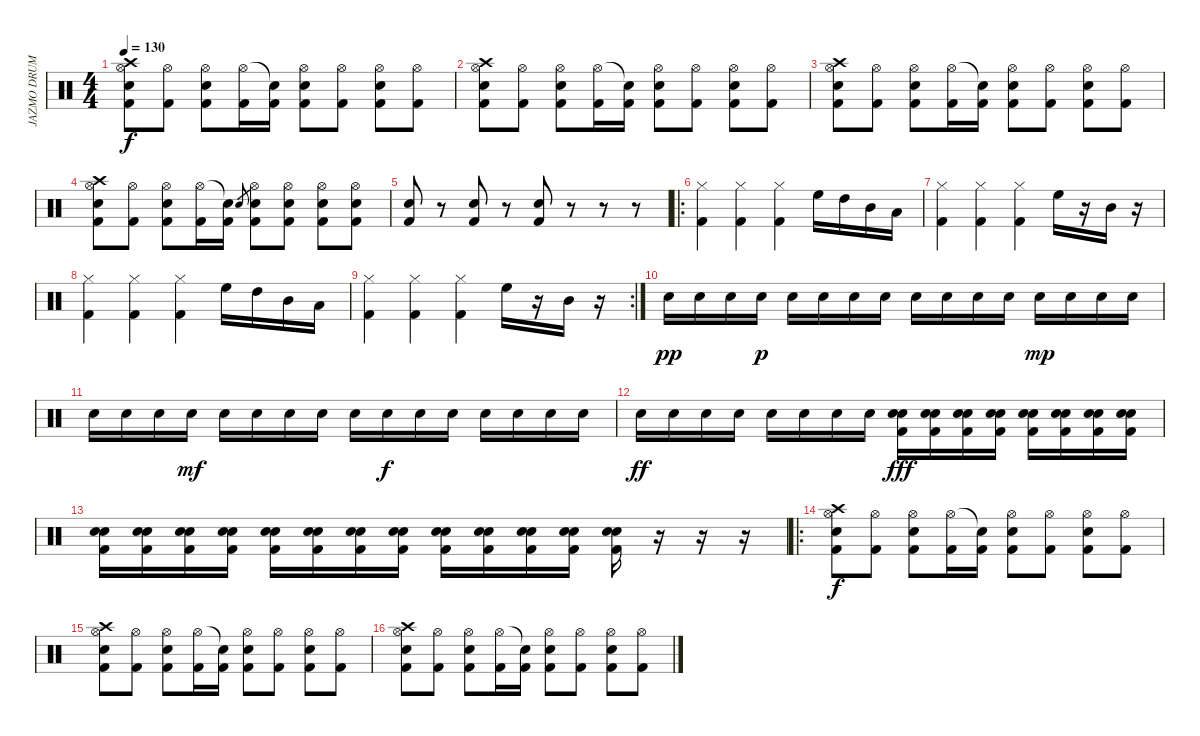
\track ("JAZMO DRUMS" "JAZMO DRUM") {instrument percussion}
\staff {score}
\articulation defaults
\ts (4 4)
\tempo 130
\clef neutral
\ks c
("Crash high (hit)" "Hi-Hat (open)" "Snare (hit) 2" "Kick (hit) 2").8{dy f} ("Hi-Hat (open)" "Kick (hit) 2").8 ("Hi-Hat (open)" "Snare (hit) 2" "Kick (hit) 2").8 ("Hi-Hat (open)" "Kick (hit) 2").16 ("Snare (hit)"{t} "Kick (hit) 2").16 ("Hi-Hat (open)" "Snare (hit) 2" "Kick (hit) 2").8 ("Hi-Hat (open)" "Kick (hit) 2").8 ("Hi-Hat (open)" "Snare (hit) 2" "Kick (hit) 2").8 ("Hi-Hat (open)" "Kick (hit) 2").8 |
("Crash high (hit)" "Hi-Hat (open)" "Snare (hit) 2" "Kick (hit) 2").8 ("Hi-Hat (open)" "Kick (hit) 2").8 ("Hi-Hat (open)" "Snare (hit) 2" "Kick (hit) 2").8 ("Hi-Hat (open)" "Kick (hit) 2").16 ("Snare (hit)"{t} "Kick (hit) 2").16 ("Hi-Hat (open)" "Snare (hit) 2" "Kick (hit) 2").8 ("Hi-Hat (open)" "Kick (hit) 2").8 ("Hi-Hat (open)" "Snare (hit) 2" "Kick (hit) 2").8 ("Hi-Hat (open)" "Kick (hit) 2").8 |
("Crash high (hit)" "Hi-Hat (open)" "Snare (hit) 2" "Kick (hit) 2").8 ("Hi-Hat (open)" "Kick (hit) 2").8 ("Hi-Hat (open)" "Snare (hit) 2" "Kick (hit) 2").8 ("Hi-Hat (open)" "Kick (hit) 2").16 ("Snare (hit)"{t} "Kick (hit) 2").16 ("Hi-Hat (open)" "Snare (hit) 2" "Kick (hit) 2").8 ("Hi-Hat (open)" "Kick (hit) 2").8 ("Hi-Hat (open)" "Snare (hit) 2" "Kick (hit) 2").8 ("Hi-Hat (open)" "Kick (hit) 2").8 |
("Crash high (hit)" "Hi-Hat (open)" "Snare (hit) 2" "Kick (hit) 2").8 ("Hi-Hat (open)" "Kick (hit) 2").8 ("Hi-Hat (open)" "Snare (hit) 2" "Kick (hit) 2").8 ("Hi-Hat (open)" "Kick (hit) 2").16 ("Snare (hit)"{t} "Kick (hit) 2").16 "Electric Snare (hit)".8{gr} ("Hi-Hat (open)" "Electric Snare (hit)" "Kick (hit) 2").8 ("Hi-Hat (open)" "Electric Snare (hit)" "Kick (hit) 2").8 ("Hi-Hat (open)" "Electric Snare (hit)" "Kick (hit) 2").8 ("Hi-Hat (open)" "Electric Snare (hit)" "Kick (hit) 2").8 |
("Electric Snare (hit)" "Kick (hit) 2").8 r.8 ("Electric Snare (hit)" "Kick (hit) 2").8 r.8 ("Electric Snare (hit)" "Kick (hit) 2").8 r.8 r.8 r.8 |
\ro
("Hi-Hat (closed)" "Kick (hit) 2").4 ("Hi-Hat (closed)" "Kick (hit) 2").4 ("Hi-Hat (closed)" "Kick (hit) 2").4 "High Floor Tom (hit)".16 "High Tom (hit)".16 "Mid Tom (hit)".16 "Low Tom (hit)".16 |
("Hi-Hat (closed)" "Kick (hit) 2").4 ("Hi-Hat (closed)" "Kick (hit) 2").4 ("Hi-Hat (closed)" "Kick (hit) 2").4 "High Floor Tom (hit)".16 r.16 "Mid Tom (hit)".16 r.16 |
("Hi-Hat (closed)" "Kick (hit) 2").4 ("Hi-Hat (closed)" "Kick (hit) 2").4 ("Hi-Hat (closed)" "Kick (hit) 2").4 "High Floor Tom (hit)".16 "High Tom (hit)".16 "Mid Tom (hit)".16 "Low Tom (hit)".16 |
\rc 2
("Hi-Hat (closed)" "Kick (hit) 2").4 ("Hi-Hat (closed)" "Kick (hit) 2").4 ("Hi-Hat (closed)" "Kick (hit) 2").4 "High Floor Tom (hit)".16 r.16 "Mid Tom (hit)".16 r.16 |
"Snare (hit) 2".16{dy pp} "Snare (hit) 2".16 "Snare (hit) 2".16 "Snare (hit) 2".16{dy p} "Snare (hit) 2".16 "Snare (hit) 2".16 "Snare (hit) 2".16 "Snare (hit) 2".16 "Snare (hit) 2".16 "Snare (hit) 2".16 "Snare (hit) 2".16 "Snare (hit) 2".16 "Snare (hit) 2".16{dy mp} "Snare (hit) 2".16 "Snare (hit) 2".16 "Snare (hit) 2".16 |
"Snare (hit) 2".16 "Snare (hit) 2".16 "Snare (hit) 2".16 "Snare (hit) 2".16{dy mf} "Snare (hit) 2".16 "Snare (hit) 2".16 "Snare (hit) 2".16 "Snare (hit) 2".16 "Snare (hit) 2".16 "Snare (hit) 2".16{dy f} "Snare (hit) 2".16 "Snare (hit) 2".16 "Snare (hit) 2".16 "Snare (hit) 2".16 "Snare (hit) 2".16 "Snare (hit) 2".16 |
"Snare (hit) 2".16{dy ff} "Snare (hit) 2".16 "Snare (hit) 2".16 "Snare (hit) 2".16 "Snare (hit) 2".16 "Snare (hit) 2".16 "Snare (hit) 2".16 "Snare (hit) 2".16 ("Kick (hit) 2" "Electric Snare (hit)" "Snare (hit) 2").16{dy fff} ("Kick (hit) 2" "Electric Snare (hit)" "Snare (hit) 2").16 ("Kick (hit) 2" "Electric Snare (hit)" "Snare (hit) 2").16 ("Kick (hit) 2" "Electric Snare (hit)" "Snare (hit) 2").16 ("Kick (hit) 2" "Electric Snare (hit)" "Snare (hit) 2").16 ("Kick (hit) 2" "Electric Snare (hit)" "Snare (hit) 2").16 ("Kick (hit) 2" "Electric Snare (hit)" "Snare (hit) 2").16 ("Kick (hit) 2" "Electric Snare (hit)" "Snare (hit) 2").16 |
("Kick (hit) 2" "Electric Snare (hit)" "Snare (hit) 2").16 ("Kick (hit) 2" "Electric Snare (hit)" "Snare (hit) 2").16 ("Kick (hit) 2" "Electric Snare (hit)" "Snare (hit) 2").16 ("Kick (hit) 2" "Electric Snare (hit)" "Snare (hit) 2").16 ("Kick (hit) 2" "Electric Snare (hit)" "Snare (hit) 2").16 ("Kick (hit) 2" "Electric Snare (hit)" "Snare (hit) 2").16 ("Kick (hit) 2" "Electric Snare (hit)" "Snare (hit) 2").16 ("Kick (hit) 2" "Electric Snare (hit)" "Snare (hit) 2").16 ("Kick (hit) 2" "Electric Snare (hit)" "Snare (hit) 2").16 ("Kick (hit) 2" "Electric Snare (hit)" "Snare (hit) 2").16 ("Kick (hit) 2" "Electric Snare (hit)" "Snare (hit) 2").16 ("Kick (hit) 2" "Electric Snare (hit)" "Snare (hit) 2").16 ("Kick (hit) 2" "Electric Snare (hit)" "Snare (hit) 2").16 r.16 r.16 r.16 |
\ro
("Crash high (hit)" "Hi-Hat (open)" "Snare (hit) 2" "Kick (hit) 2").8{dy f} ("Hi-Hat (open)" "Kick (hit) 2").8 ("Hi-Hat (open)" "Snare (hit) 2" "Kick (hit) 2").8 ("Hi-Hat (open)" "Kick (hit) 2").16 ("Snare (hit)"{t} "Kick (hit) 2").16 ("Hi-Hat (open)" "Snare (hit) 2" "Kick (hit) 2").8 ("Hi-Hat (open)" "Kick (hit) 2").8 ("Hi-Hat (open)" "Snare (hit) 2" "Kick (hit) 2").8 ("Hi-Hat (open)" "Kick (hit) 2").8 |
("Crash high (hit)" "Hi-Hat (open)" "Snare (hit) 2" "Kick (hit) 2").8 ("Hi-Hat (open)" "Kick (hit) 2").8 ("Hi-Hat (open)" "Snare (hit) 2" "Kick (hit) 2").8 ("Hi-Hat (open)" "Kick (hit) 2").16 ("Snare (hit)"{t} "Kick (hit) 2").16 ("Hi-Hat (open)" "Snare (hit) 2" "Kick (hit) 2").8 ("Hi-Hat (open)" "Kick (hit) 2").8 ("Hi-Hat (open)" "Snare (hit) 2" "Kick (hit) 2").8 ("Hi-Hat (open)" "Kick (hit) 2").8 |
("Crash high (hit)" "Hi-Hat (open)" "Snare (hit) 2" "Kick (hit) 2").8 ("Hi-Hat (open)" "Kick (hit) 2").8 ("Hi-Hat (open)" "Snare (hit) 2" "Kick (hit) 2").8 ("Hi-Hat (open)" "Kick (hit) 2").16 ("Snare (hit)"{t} "Kick (hit) 2").16 ("Hi-Hat (open)" "Snare (hit) 2" "Kick (hit) 2").8 ("Hi-Hat (open)" "Kick (hit) 2").8 ("Hi-Hat (open)" "Snare (hit) 2" "Kick (hit) 2").8 ("Hi-Hat (open)" "Kick (hit) 2").8
